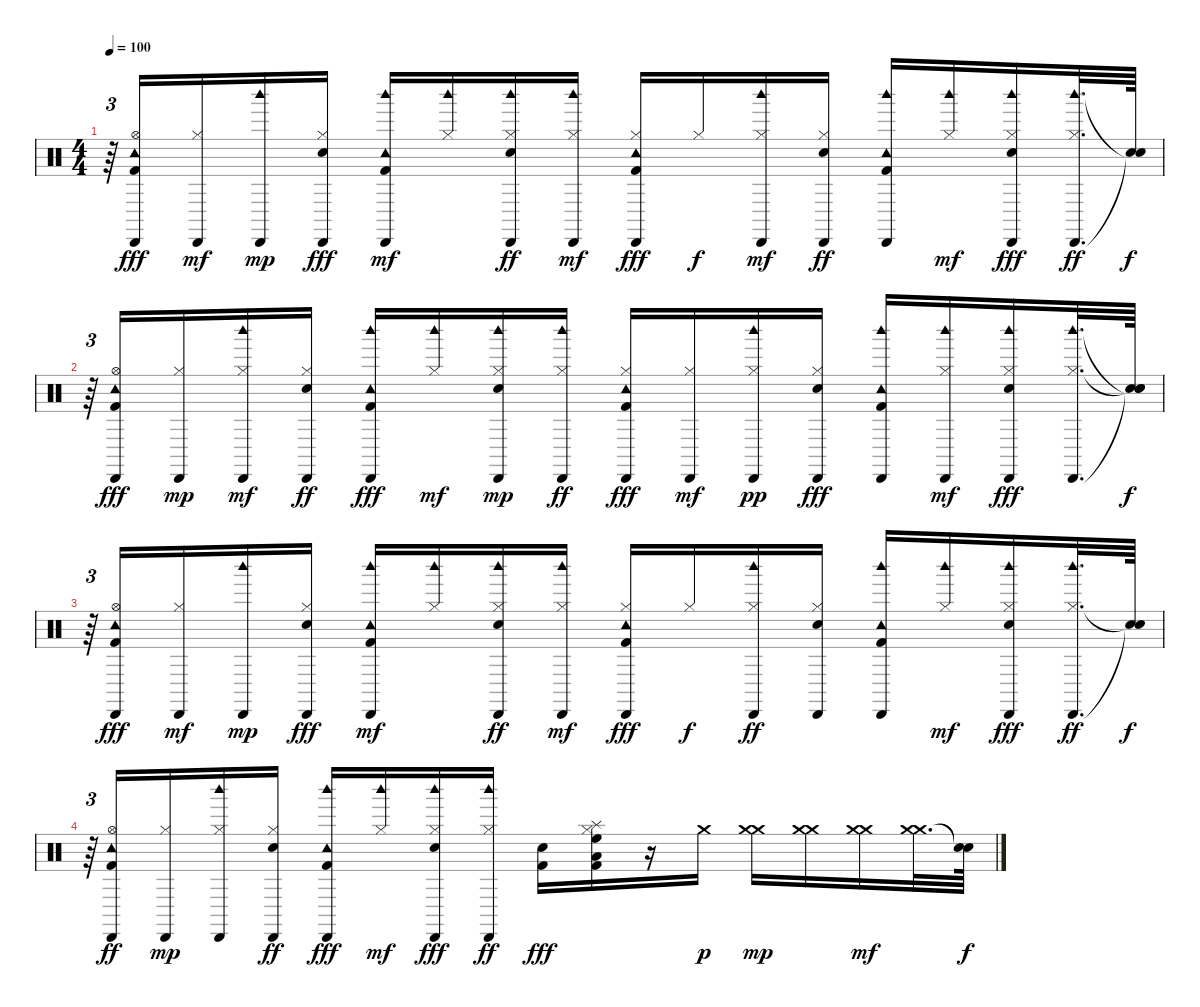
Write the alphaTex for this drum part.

\track "" {instrument percussion}
\staff {score}
\articulation defaults
\ts (4 4)
\tempo 100
\clef neutral
\ks c
r.64{tu (3 2) dy f} ("Cabasa (hit)" "Tambourine (hit)" "Kick (hit) 2" "Hi-Hat (open)").16{dy fff} ("Hi-Hat (closed)" "Cabasa (hit)").16{dy mf} ("Cabasa (hit)" "Woodblock high (hit)").16{dy mp} ("Hi-Hat (closed)" "Electric Snare (hit)" "Cabasa (hit)").16{dy fff} ("Kick (hit) 2" "Woodblock high (hit)" "Tambourine (hit)" "Cabasa (hit)").16{dy mf} ("Woodblock high (hit)" "Hi-Hat (closed)").16 ("Cabasa (hit)" "Woodblock high (hit)" "Hi-Hat (closed)" "Electric Snare (hit)").16{dy ff} ("Cabasa (hit)" "Woodblock high (hit)" "Hi-Hat (closed)").16{dy mf} ("Tambourine (hit)" "Cabasa (hit)" "Hi-Hat (closed)" "Kick (hit) 2").16{dy fff} "Hi-Hat (closed)".16{dy f} ("Woodblock high (hit)" "Hi-Hat (closed)" "Cabasa (hit)").16{dy mf} ("Cabasa (hit)" "Hi-Hat (closed)" "Electric Snare (hit)").16{dy ff} ("Tambourine (hit)" "Kick (hit) 2" "Cabasa (hit)" "Woodblock high (hit)").16 ("Woodblock high (hit)" "Hi-Hat (closed)").16{dy mf} ("Woodblock high (hit)" "Cabasa (hit)" "Hi-Hat (closed)" "Electric Snare (hit)").16{dy fff} ("Cabasa (hit)" "Woodblock high (hit)" "Hi-Hat (closed)").32{d dy ff} ("Snare (hit)"{t} "Snare (hit)"{t}).64{dy f} |
r.64{tu (3 2)} ("Kick (hit) 2" "Hi-Hat (open)" "Tambourine (hit)" "Cabasa (hit)").16{dy fff} ("Hi-Hat (closed)" "Cabasa (hit)").16{dy mp} ("Cabasa (hit)" "Woodblock high (hit)" "Hi-Hat (closed)").16{dy mf} ("Hi-Hat (closed)" "Electric Snare (hit)" "Cabasa (hit)").16{dy ff} ("Kick (hit) 2" "Woodblock high (hit)" "Cabasa (hit)" "Tambourine (hit)").16{dy fff} ("Hi-Hat (closed)" "Woodblock high (hit)").16{dy mf} ("Electric Snare (hit)" "Hi-Hat (closed)" "Woodblock high (hit)" "Cabasa (hit)").16{dy mp} ("Cabasa (hit)" "Hi-Hat (closed)" "Woodblock high (hit)").16{dy ff} ("Hi-Hat (closed)" "Tambourine (hit)" "Cabasa (hit)" "Kick (hit) 2").16{dy fff} ("Hi-Hat (closed)" "Cabasa (hit)").16{dy mf} ("Cabasa (hit)" "Woodblock high (hit)" "Hi-Hat (closed)").16{dy pp} ("Cabasa (hit)" "Hi-Hat (closed)" "Electric Snare (hit)").16{dy fff} ("Kick (hit) 2" "Woodblock high (hit)" "Tambourine (hit)" "Cabasa (hit)").16 ("Cabasa (hit)" "Woodblock high (hit)" "Hi-Hat (closed)").16{dy mf} ("Hi-Hat (closed)" "Woodblock high (hit)" "Electric Snare (hit)" "Cabasa (hit)").16{dy fff} ("Woodblock high (hit)" "Cabasa (hit)" "Hi-Hat (closed)").32{d} ("Snare (hit)"{t} "Snare (hit)"{t} "Snare (hit)"{t}).64{dy f} |
r.64{tu (3 2)} ("Cabasa (hit)" "Tambourine (hit)" "Hi-Hat (open)" "Kick (hit) 2").16{dy fff} ("Hi-Hat (closed)" "Cabasa (hit)").16{dy mf} ("Woodblock high (hit)" "Cabasa (hit)").16{dy mp} ("Hi-Hat (closed)" "Electric Snare (hit)" "Cabasa (hit)").16{dy fff} ("Woodblock high (hit)" "Kick (hit) 2" "Tambourine (hit)" "Cabasa (hit)").16{dy mf} ("Woodblock high (hit)" "Hi-Hat (closed)").16 ("Hi-Hat (closed)" "Cabasa (hit)" "Woodblock high (hit)" "Electric Snare (hit)").16{dy ff} ("Woodblock high (hit)" "Cabasa (hit)" "Hi-Hat (closed)").16{dy mf} ("Kick (hit) 2" "Hi-Hat (closed)" "Tambourine (hit)" "Cabasa (hit)").16{dy fff} "Hi-Hat (closed)".16{dy f} ("Cabasa (hit)" "Hi-Hat (closed)" "Woodblock high (hit)").16{dy ff} ("Cabasa (hit)" "Electric Snare (hit)" "Hi-Hat (closed)").16 ("Woodblock high (hit)" "Cabasa (hit)" "Tambourine (hit)" "Kick (hit) 2").16 ("Woodblock high (hit)" "Hi-Hat (closed)").16{dy mf} ("Cabasa (hit)" "Hi-Hat (closed)" "Electric Snare (hit)" "Woodblock high (hit)").16{dy fff} ("Cabasa (hit)" "Hi-Hat (closed)" "Woodblock high (hit)").32{d dy ff} ("Snare (hit)"{t} "Snare (hit)"{t}).64{dy f} |
r.64{tu (3 2)} ("Cabasa (hit)" "Tambourine (hit)" "Kick (hit) 2" "Hi-Hat (open)").16{dy ff} ("Cabasa (hit)" "Hi-Hat (closed)").16{dy mp} ("Hi-Hat (closed)" "Woodblock high (hit)" "Cabasa (hit)").16 ("Cabasa (hit)" "Electric Snare (hit)" "Hi-Hat (closed)").16{dy ff} ("Kick (hit) 2" "Cabasa (hit)" "Woodblock high (hit)" "Tambourine (hit)").16{dy fff} ("Woodblock high (hit)" "Hi-Hat (closed)").16{dy mf} ("Cabasa (hit)" "Woodblock high (hit)" "Hi-Hat (closed)" "Electric Snare (hit)").16{dy fff} ("Cabasa (hit)" "Hi-Hat (closed)" "Woodblock high (hit)").16{dy ff} ("Electric Snare (hit)" "Kick (hit) 2").16{dy fff} ("Hi-Hat (closed)" "High Floor Tom (hit)" "Low Floor Tom (hit)" "Kick (hit) 2" "Splash (hit)").16 r.16 "Crash medium (hit)".16{dy p} ("Crash medium (hit)" "Crash medium (hit)").16{dy mp} ("Crash medium (hit)" "Crash medium (hit)").16 ("Crash medium (hit)" "Crash medium (hit)").16{dy mf} ("Crash medium (hit)" "Crash medium (hit)").32{d} ("Snare (hit)"{t} "Snare (hit)"{t}).64{dy f}
